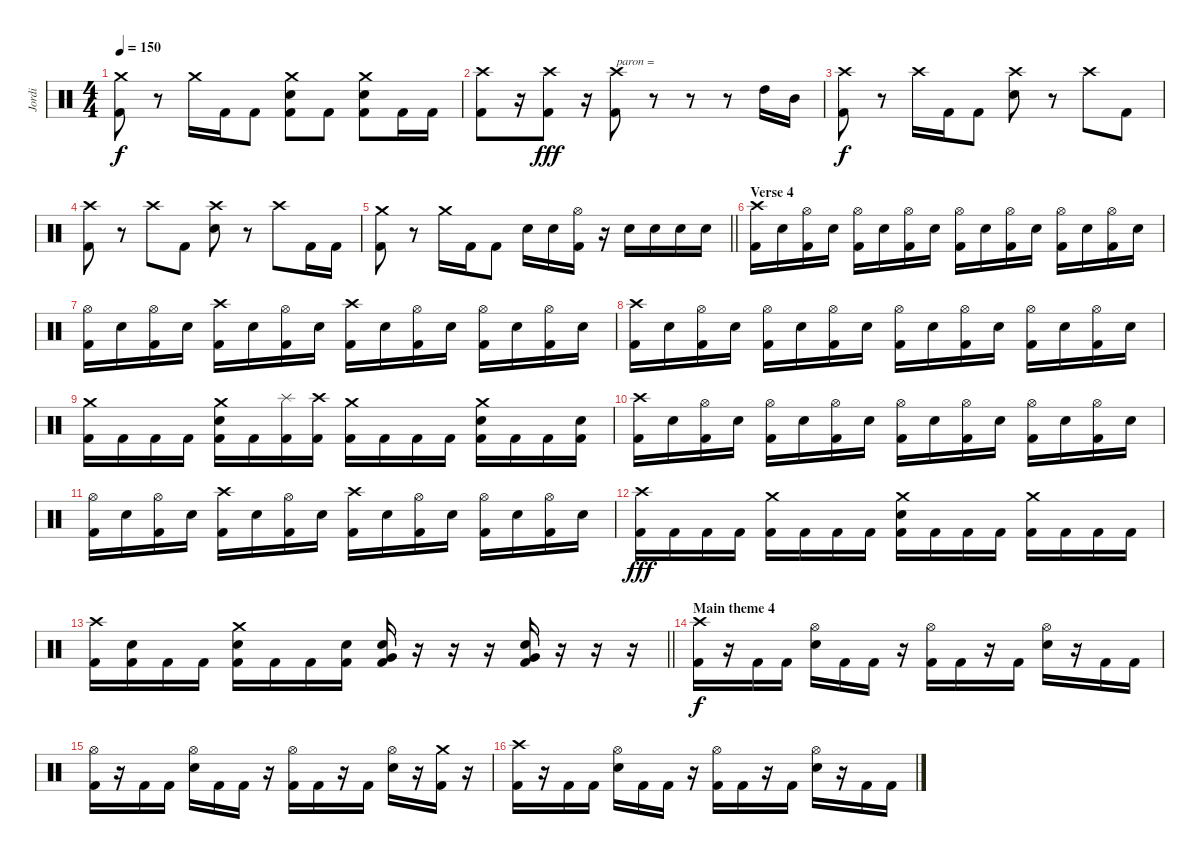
\track ("Jordi" "Jordi") {instrument percussion}
\staff {score}
\articulation defaults
\ts (4 4)
\tempo 150
\clef neutral
\ks c
("Crash medium (hit)" "Kick (hit) 2").8{dy f} r.8 "Crash medium (hit)".16 "Kick (hit) 2".16 "Kick (hit) 2".8 ("Crash medium (hit)" "Snare (hit) 2" "Kick (hit) 2").8 "Kick (hit) 2".8 ("Crash medium (hit)" "Snare (hit) 2" "Kick (hit) 2").8 "Kick (hit) 2".16 "Kick (hit) 2".16 |
("Crash high (hit)" "Kick (hit) 2").8 r.16 ("Crash high (hit)" "Kick (hit) 2").8{dy fff} r.16 ("Crash high (hit)" "Kick (hit) 2").8{txt "paron ="} r.8 r.8 r.8 "High Tom (hit)".16 "Mid Tom (hit)".16 |
("Crash high (hit)" "Kick (hit) 2").8{dy f} r.8 "Crash high (hit)".16 "Kick (hit) 2".16 "Kick (hit) 2".8 ("Crash high (hit)" "Snare (hit) 2").8 r.8 "Crash high (hit)".8 "Kick (hit) 2".8 |
("Crash high (hit)" "Kick (hit) 2").8 r.8 "Crash high (hit)".8 "Kick (hit) 2".8 ("Crash high (hit)" "Snare (hit) 2").8 r.8 "Crash high (hit)".8 "Kick (hit) 2".16 "Kick (hit) 2".16 |
\barLineRight lightlight
("Crash medium (hit)" "Kick (hit) 2").8 r.8 "Crash medium (hit)".16 "Kick (hit) 2".16 "Kick (hit) 2".8 "Snare (hit) 2".16 "Snare (hit) 2".16 ("Hi-Hat (open)" "Kick (hit) 2").16 r.16 "Snare (hit) 2".16 "Snare (hit) 2".16 "Snare (hit) 2".16 "Snare (hit) 2".16 |
\section ("" "Verse 4")
("Crash high (hit)" "Kick (hit) 2").16 "Snare (hit) 2".16 ("Hi-Hat (open)" "Kick (hit) 2").16 "Snare (hit) 2".16 ("Hi-Hat (open)" "Kick (hit) 2").16 "Snare (hit) 2".16 ("Hi-Hat (open)" "Kick (hit) 2").16 "Snare (hit) 2".16 ("Hi-Hat (open)" "Kick (hit) 2").16 "Snare (hit) 2".16 ("Hi-Hat (open)" "Kick (hit) 2").16 "Snare (hit) 2".16 ("Hi-Hat (open)" "Kick (hit) 2").16 "Snare (hit) 2".16 ("Hi-Hat (open)" "Kick (hit) 2").16 "Snare (hit) 2".16 |
("Hi-Hat (open)" "Kick (hit) 2").16 "Snare (hit) 2".16 ("Hi-Hat (open)" "Kick (hit) 2").16 "Snare (hit) 2".16 ("Crash high (hit)" "Kick (hit) 2").16 "Snare (hit) 2".16 ("Hi-Hat (open)" "Kick (hit) 2").16 "Snare (hit) 2".16 ("Crash high (hit)" "Kick (hit) 2").16 "Snare (hit) 2".16 ("Hi-Hat (open)" "Kick (hit) 2").16 "Snare (hit) 2".16 ("Hi-Hat (open)" "Kick (hit) 2").16 "Snare (hit) 2".16 ("Hi-Hat (open)" "Kick (hit) 2").16 "Snare (hit) 2".16 |
("Crash high (hit)" "Kick (hit) 2").16 "Snare (hit) 2".16 ("Hi-Hat (open)" "Kick (hit) 2").16 "Snare (hit) 2".16 ("Hi-Hat (open)" "Kick (hit) 2").16 "Snare (hit) 2".16 ("Hi-Hat (open)" "Kick (hit) 2").16 "Snare (hit) 2".16 ("Hi-Hat (open)" "Kick (hit) 2").16 "Snare (hit) 2".16 ("Hi-Hat (open)" "Kick (hit) 2").16 "Snare (hit) 2".16 ("Hi-Hat (open)" "Kick (hit) 2").16 "Snare (hit) 2".16 ("Hi-Hat (open)" "Kick (hit) 2").16 "Snare (hit) 2".16 |
("Crash medium (hit)" "Kick (hit) 2").16 "Kick (hit) 2".16 "Kick (hit) 2".16 "Kick (hit) 2".16 ("Crash medium (hit)" "Snare (hit) 2" "Kick (hit) 2").16 "Kick (hit) 2".16 ("Splash (hit)" "Kick (hit) 2").16 ("Crash high (hit)" "Kick (hit) 2").16 ("Crash medium (hit)" "Kick (hit) 2").16 "Kick (hit) 2".16 "Kick (hit) 2".16 "Kick (hit) 2".16 ("Crash medium (hit)" "Snare (hit) 2" "Kick (hit) 2").16 "Kick (hit) 2".16 "Kick (hit) 2".16 ("Snare (hit) 2" "Kick (hit) 2").16 |
("Crash high (hit)" "Kick (hit) 2").16 "Snare (hit) 2".16 ("Hi-Hat (open)" "Kick (hit) 2").16 "Snare (hit) 2".16 ("Hi-Hat (open)" "Kick (hit) 2").16 "Snare (hit) 2".16 ("Hi-Hat (open)" "Kick (hit) 2").16 "Snare (hit) 2".16 ("Hi-Hat (open)" "Kick (hit) 2").16 "Snare (hit) 2".16 ("Hi-Hat (open)" "Kick (hit) 2").16 "Snare (hit) 2".16 ("Hi-Hat (open)" "Kick (hit) 2").16 "Snare (hit) 2".16 ("Hi-Hat (open)" "Kick (hit) 2").16 "Snare (hit) 2".16 |
("Hi-Hat (open)" "Kick (hit) 2").16 "Snare (hit) 2".16 ("Hi-Hat (open)" "Kick (hit) 2").16 "Snare (hit) 2".16 ("Crash high (hit)" "Kick (hit) 2").16 "Snare (hit) 2".16 ("Hi-Hat (open)" "Kick (hit) 2").16 "Snare (hit) 2".16 ("Crash high (hit)" "Kick (hit) 2").16 "Snare (hit) 2".16 ("Hi-Hat (open)" "Kick (hit) 2").16 "Snare (hit) 2".16 ("Hi-Hat (open)" "Kick (hit) 2").16 "Snare (hit) 2".16 ("Hi-Hat (open)" "Kick (hit) 2").16 "Snare (hit) 2".16 |
("Crash high (hit)" "Kick (hit) 2").16{dy fff} "Kick (hit) 2".16 "Kick (hit) 2".16 "Kick (hit) 2".16 ("Crash medium (hit)" "Kick (hit) 2").16 "Kick (hit) 2".16 "Kick (hit) 2".16 "Kick (hit) 2".16 ("Crash medium (hit)" "Snare (hit) 2" "Kick (hit) 2").16 "Kick (hit) 2".16 "Kick (hit) 2".16 "Kick (hit) 2".16 ("Crash medium (hit)" "Kick (hit) 2").16 "Kick (hit) 2".16 "Kick (hit) 2".16 "Kick (hit) 2".16 |
\barLineRight lightlight
("Crash high (hit)" "Kick (hit) 2").16 ("Snare (hit) 2" "Kick (hit) 2").16 "Kick (hit) 2".16 "Kick (hit) 2".16 ("Crash medium (hit)" "Snare (hit) 2" "Kick (hit) 2").16 "Kick (hit) 2".16 "Kick (hit) 2".16 ("Snare (hit) 2" "Kick (hit) 2").16 ("Very Low Tom (hit)" "Snare (hit) 2" "Kick (hit) 2").16 r.16 r.16 r.16 ("Very Low Tom (hit)" "Snare (hit) 2" "Kick (hit) 2").16 r.16 r.16 r.16 |
\section ("" "Main theme 4")
("Crash high (hit)" "Kick (hit) 2").16{dy f} r.16 "Kick (hit) 2".16 "Kick (hit) 2".16 ("Hi-Hat (open)" "Snare (hit) 2").16 "Kick (hit) 2".16 "Kick (hit) 2".16 r.16 ("Hi-Hat (open)" "Kick (hit) 2").16 "Kick (hit) 2".16 r.16 "Kick (hit) 2".16 ("Hi-Hat (open)" "Snare (hit) 2").16 r.16 "Kick (hit) 2".16 "Kick (hit) 2".16 |
("Hi-Hat (open)" "Kick (hit) 2").16 r.16 "Kick (hit) 2".16 "Kick (hit) 2".16 ("Hi-Hat (open)" "Snare (hit) 2").16 "Kick (hit) 2".16 "Kick (hit) 2".16 r.16 ("Hi-Hat (open)" "Kick (hit) 2").16 "Kick (hit) 2".16 r.16 "Kick (hit) 2".16 ("Hi-Hat (open)" "Snare (hit) 2").16 r.16 ("Crash medium (hit)" "Kick (hit) 2").16 r.16 |
("Crash high (hit)" "Kick (hit) 2").16 r.16 "Kick (hit) 2".16 "Kick (hit) 2".16 ("Hi-Hat (open)" "Snare (hit) 2").16 "Kick (hit) 2".16 "Kick (hit) 2".16 r.16 ("Hi-Hat (open)" "Kick (hit) 2").16 "Kick (hit) 2".16 r.16 "Kick (hit) 2".16 ("Hi-Hat (open)" "Snare (hit) 2").16 r.16 "Kick (hit) 2".16 "Kick (hit) 2".16
